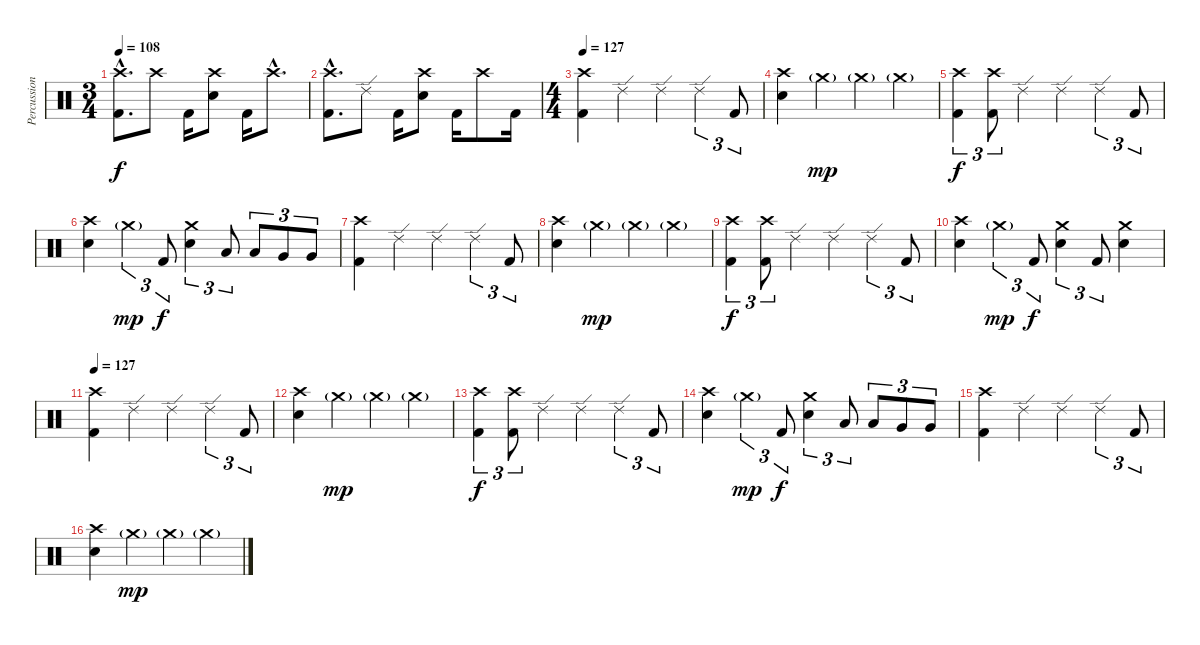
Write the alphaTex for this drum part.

\track ("Percussion" "Percussion") {instrument percussion}
\staff {score}
\articulation defaults
\ts (3 4)
\tempo 108
\clef neutral
\ks c
("Crash high (hit)"{hac} "Kick (hit) 2"{hac}).8{d dy f} "Crash high (hit)".8 "Kick (hit) 2".16 ("Crash high (hit)" "Electric Snare (hit)").8 "Kick (hit) 2".16 "Crash high (hit)"{hac}.8{d} |
("Crash high (hit)"{hac} "Kick (hit) 2"{hac}).8{d} "Ride (edge) 2".8 "Kick (hit) 2".16 ("Crash high (hit)" "Electric Snare (hit)").8 "Kick (hit) 2".16 "Crash high (hit)".8 "Kick (hit) 2".16 |
\ts (4 4)
\tempo 127
("Crash high (hit)" "Kick (hit) 2").4 "Ride (edge) 2".4 "Ride (edge) 2".4 "Ride (edge) 2".4{tu (3 2)} "Kick (hit) 2".8{tu (3 2)} |
("Crash high (hit)" "Electric Snare (hit)").4 "Crash medium (hit)"{g}.4{dy mp} "Crash medium (hit)"{g}.4 "Crash medium (hit)"{g}.4 |
("Crash high (hit)" "Kick (hit) 2").4{tu (3 2) dy f} ("Crash high (hit)" "Kick (hit) 2").8{tu (3 2)} "Ride (edge) 2".4 "Ride (edge) 2".4 "Ride (edge) 2".4{tu (3 2)} "Kick (hit) 2".8{tu (3 2)} |
("Crash high (hit)" "Electric Snare (hit)").4 "Crash medium (hit)"{g}.4{tu (3 2) dy mp} "Kick (hit) 2".8{tu (3 2) dy f} ("Crash medium (hit)" "Electric Snare (hit)").4{tu (3 2)} "Low Tom (hit)".8{tu (3 2)} "Low Tom (hit)".8{tu (3 2)} "Very Low Tom (hit)".8{tu (3 2)} "Very Low Tom (hit)".8{tu (3 2)} |
("Crash high (hit)" "Kick (hit) 2").4 "Ride (edge) 2".4 "Ride (edge) 2".4 "Ride (edge) 2".4{tu (3 2)} "Kick (hit) 2".8{tu (3 2)} |
("Crash high (hit)" "Electric Snare (hit)").4 "Crash medium (hit)"{g}.4{dy mp} "Crash medium (hit)"{g}.4 "Crash medium (hit)"{g}.4 |
("Crash high (hit)" "Kick (hit) 2").4{tu (3 2) dy f} ("Crash high (hit)" "Kick (hit) 2").8{tu (3 2)} "Ride (edge) 2".4 "Ride (edge) 2".4 "Ride (edge) 2".4{tu (3 2)} "Kick (hit) 2".8{tu (3 2)} |
("Crash high (hit)" "Electric Snare (hit)").4 "Crash medium (hit)"{g}.4{tu (3 2) dy mp} "Kick (hit) 2".8{tu (3 2) dy f} ("Crash medium (hit)" "Electric Snare (hit)").4{tu (3 2)} "Kick (hit) 2".8{tu (3 2)} ("Crash medium (hit)" "Electric Snare (hit)").4 |
\tempo 127
("Crash high (hit)" "Kick (hit) 2").4 "Ride (edge) 2".4 "Ride (edge) 2".4 "Ride (edge) 2".4{tu (3 2)} "Kick (hit) 2".8{tu (3 2)} |
("Crash high (hit)" "Electric Snare (hit)").4 "Crash medium (hit)"{g}.4{dy mp} "Crash medium (hit)"{g}.4 "Crash medium (hit)"{g}.4 |
("Crash high (hit)" "Kick (hit) 2").4{tu (3 2) dy f} ("Crash high (hit)" "Kick (hit) 2").8{tu (3 2)} "Ride (edge) 2".4 "Ride (edge) 2".4 "Ride (edge) 2".4{tu (3 2)} "Kick (hit) 2".8{tu (3 2)} |
("Crash high (hit)" "Electric Snare (hit)").4 "Crash medium (hit)"{g}.4{tu (3 2) dy mp} "Kick (hit) 2".8{tu (3 2) dy f} ("Crash medium (hit)" "Electric Snare (hit)").4{tu (3 2)} "Low Tom (hit)".8{tu (3 2)} "Low Tom (hit)".8{tu (3 2)} "Very Low Tom (hit)".8{tu (3 2)} "Very Low Tom (hit)".8{tu (3 2)} |
("Crash high (hit)" "Kick (hit) 2").4 "Ride (edge) 2".4 "Ride (edge) 2".4 "Ride (edge) 2".4{tu (3 2)} "Kick (hit) 2".8{tu (3 2)} |
("Crash high (hit)" "Electric Snare (hit)").4 "Crash medium (hit)"{g}.4{dy mp} "Crash medium (hit)"{g}.4 "Crash medium (hit)"{g}.4
